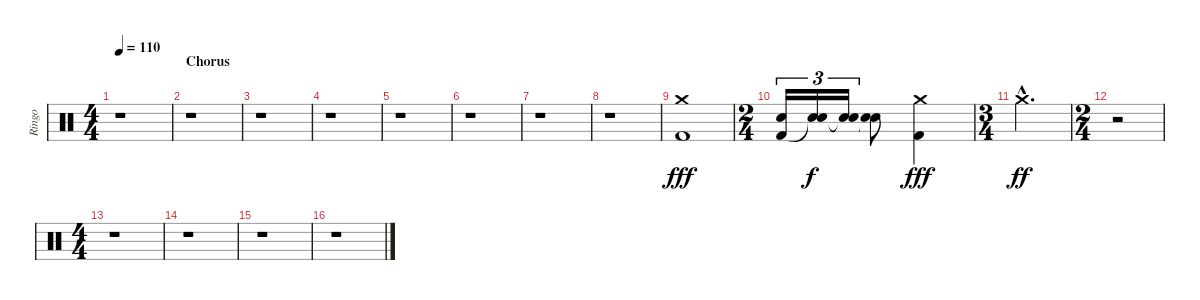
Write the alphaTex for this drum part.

\track ("Ringo" "Ringo") {instrument percussion}
\staff {score}
\articulation defaults
\ts (4 4)
\tempo 110
\clef neutral
\ks c
r.1{dy ff} |
\section ("" "Chorus")
r.1 |
r.1 |
r.1 |
r.1 |
r.1 |
r.1 |
r.1 |
("Crash medium (hit)" "Kick (hit) 2").1{dy fff} |
\ts (2 4)
("Snare (hit) 2" "Kick (hit) 2").16{tu (3 2)} ("Snare (hit) 2" "Snare (hit)"{t}).16{tu (3 2) dy f} ("Snare (hit) 2" "Snare (hit)"{t}).16{tu (3 2)} ("Snare (hit) 2" "Snare (hit)"{t}).8 ("Crash medium (hit)" "Kick (hit) 2").4{dy fff} |
\ts (3 4)
"Crash medium (hit)"{hac}.2{d dy ff} |
\ts (2 4)
r.2 |
\ts (4 4)
r.1 |
r.1 |
r.1 |
r.1
